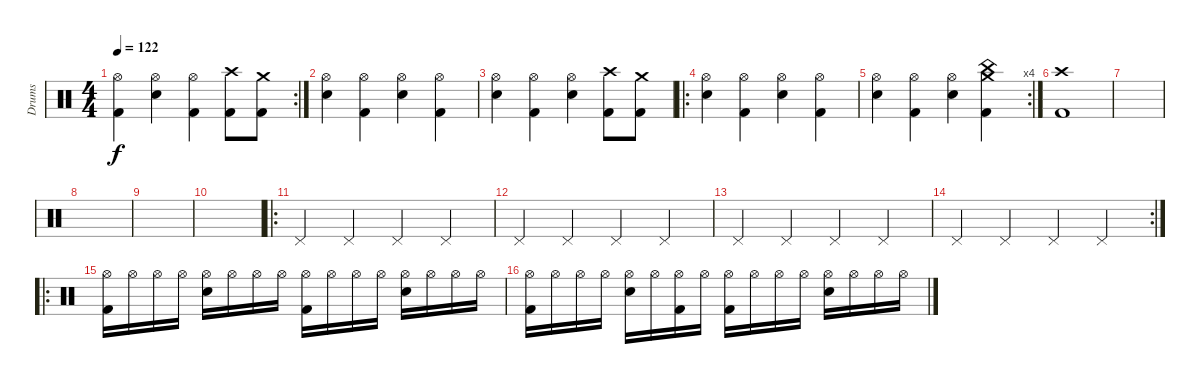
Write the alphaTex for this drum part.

\track ("Drums" "Drums") {instrument percussion}
\staff {score}
\articulation defaults
\rc 2
\ts (4 4)
\tempo 122
\clef neutral
\ks c
("Hi-Hat (open)" "Kick (hit) 2").4{dy f} ("Hi-Hat (open)" "Snare (hit) 2").4 ("Hi-Hat (open)" "Kick (hit) 2").4 ("Crash high (hit)" "Kick (hit) 2").8 ("Crash medium (hit)" "Kick (hit) 2").8 |
("Hi-Hat (open)" "Snare (hit) 2").4 ("Hi-Hat (open)" "Kick (hit) 2").4 ("Hi-Hat (open)" "Snare (hit) 2").4 ("Hi-Hat (open)" "Kick (hit) 2").4 |
("Hi-Hat (open)" "Snare (hit) 2").4 ("Hi-Hat (open)" "Kick (hit) 2").4 ("Hi-Hat (open)" "Snare (hit) 2").4 ("Crash high (hit)" "Kick (hit) 2").8 ("Crash medium (hit)" "Kick (hit) 2").8 |
\ro
("Hi-Hat (open)" "Snare (hit) 2").4 ("Hi-Hat (open)" "Kick (hit) 2").4 ("Hi-Hat (open)" "Snare (hit) 2").4 ("Hi-Hat (open)" "Kick (hit) 2").4 |
\rc 4
("Hi-Hat (open)" "Snare (hit) 2").4 ("Hi-Hat (open)" "Kick (hit) 2").4 ("Hi-Hat (open)" "Snare (hit) 2").4 ("China (hit)" "Kick (hit) 2" "Crash medium (hit)").4 |
("Crash high (hit)" "Kick (hit) 2").1 |
|
|
|
|
\ro "Pedal Hi-Hat (hit)".4 "Pedal Hi-Hat (hit)".4 "Pedal Hi-Hat (hit)".4 "Pedal Hi-Hat (hit)".4
|
"Pedal Hi-Hat (hit)".4 "Pedal Hi-Hat (hit)".4 "Pedal Hi-Hat (hit)".4 "Pedal Hi-Hat (hit)".4 |
"Pedal Hi-Hat (hit)".4 "Pedal Hi-Hat (hit)".4 "Pedal Hi-Hat (hit)".4 "Pedal Hi-Hat (hit)".4 |
\rc 2 "Pedal Hi-Hat (hit)".4 "Pedal Hi-Hat (hit)".4 "Pedal Hi-Hat (hit)".4 "Pedal Hi-Hat (hit)".4
|
\ro
("Hi-Hat (open)" "Kick (hit) 2").16 "Hi-Hat (open)".16 "Hi-Hat (open)".16 "Hi-Hat (open)".16 ("Hi-Hat (open)" "Snare (hit) 2").16 "Hi-Hat (open)".16 "Hi-Hat (open)".16 "Hi-Hat (open)".16 ("Hi-Hat (open)" "Kick (hit) 2").16 "Hi-Hat (open)".16 "Hi-Hat (open)".16 "Hi-Hat (open)".16 ("Hi-Hat (open)" "Snare (hit) 2").16 "Hi-Hat (open)".16 "Hi-Hat (open)".16 "Hi-Hat (open)".16 |
("Hi-Hat (open)" "Kick (hit) 2").16 "Hi-Hat (open)".16 "Hi-Hat (open)".16 "Hi-Hat (open)".16 ("Hi-Hat (open)" "Snare (hit) 2").16 "Hi-Hat (open)".16 ("Hi-Hat (open)" "Kick (hit) 2").16 "Hi-Hat (open)".16 ("Hi-Hat (open)" "Kick (hit) 2").16 "Hi-Hat (open)".16 "Hi-Hat (open)".16 "Hi-Hat (open)".16 ("Hi-Hat (open)" "Snare (hit) 2").16 "Hi-Hat (open)".16 "Hi-Hat (open)".16 "Hi-Hat (open)".16
